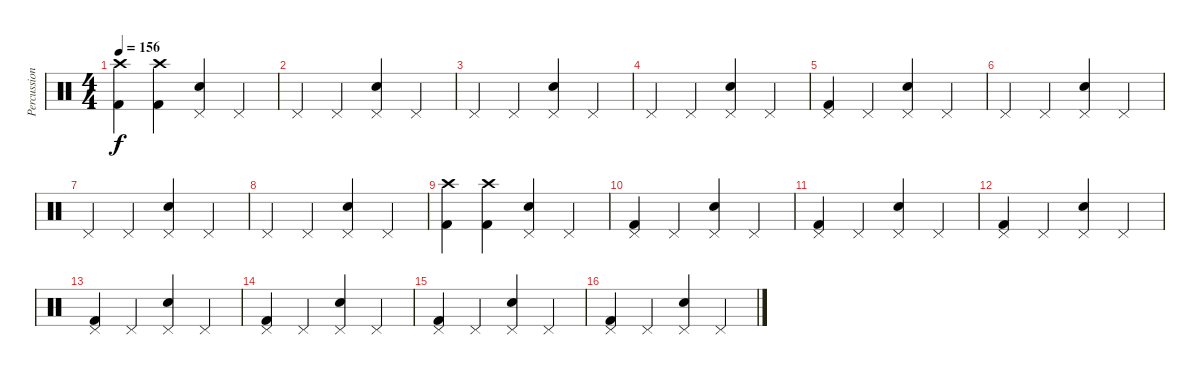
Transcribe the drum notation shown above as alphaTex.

\track ("Percussions" "Percussion") {instrument percussion}
\staff {score}
\articulation defaults
\ts (4 4)
\tempo 156
\clef neutral
\ks c
("Crash high (hit)" "Kick (hit) 2").4{dy f} ("Crash high (hit)" "Kick (hit) 2").4 ("Pedal Hi-Hat (hit)" "Electric Snare (hit)").4 "Pedal Hi-Hat (hit)".4 |
"Pedal Hi-Hat (hit)".4 "Pedal Hi-Hat (hit)".4 ("Pedal Hi-Hat (hit)" "Electric Snare (hit)").4 "Pedal Hi-Hat (hit)".4 |
"Pedal Hi-Hat (hit)".4 "Pedal Hi-Hat (hit)".4 ("Pedal Hi-Hat (hit)" "Electric Snare (hit)").4 "Pedal Hi-Hat (hit)".4 |
"Pedal Hi-Hat (hit)".4 "Pedal Hi-Hat (hit)".4 ("Pedal Hi-Hat (hit)" "Electric Snare (hit)").4 "Pedal Hi-Hat (hit)".4 |
("Pedal Hi-Hat (hit)" "Kick (hit) 2").4 "Pedal Hi-Hat (hit)".4 ("Pedal Hi-Hat (hit)" "Electric Snare (hit)").4 "Pedal Hi-Hat (hit)".4 |
"Pedal Hi-Hat (hit)".4 "Pedal Hi-Hat (hit)".4 ("Pedal Hi-Hat (hit)" "Electric Snare (hit)").4 "Pedal Hi-Hat (hit)".4 |
"Pedal Hi-Hat (hit)".4 "Pedal Hi-Hat (hit)".4 ("Pedal Hi-Hat (hit)" "Electric Snare (hit)").4 "Pedal Hi-Hat (hit)".4 |
"Pedal Hi-Hat (hit)".4 "Pedal Hi-Hat (hit)".4 ("Pedal Hi-Hat (hit)" "Electric Snare (hit)").4 "Pedal Hi-Hat (hit)".4 |
("Crash high (hit)" "Kick (hit) 2").4 ("Crash high (hit)" "Kick (hit) 2").4 ("Pedal Hi-Hat (hit)" "Electric Snare (hit)").4 "Pedal Hi-Hat (hit)".4 |
("Pedal Hi-Hat (hit)" "Kick (hit) 2").4 "Pedal Hi-Hat (hit)".4 ("Pedal Hi-Hat (hit)" "Electric Snare (hit)").4 "Pedal Hi-Hat (hit)".4 |
("Pedal Hi-Hat (hit)" "Kick (hit) 2").4 "Pedal Hi-Hat (hit)".4 ("Pedal Hi-Hat (hit)" "Electric Snare (hit)").4 "Pedal Hi-Hat (hit)".4 |
("Pedal Hi-Hat (hit)" "Kick (hit) 2").4 "Pedal Hi-Hat (hit)".4 ("Pedal Hi-Hat (hit)" "Electric Snare (hit)").4 "Pedal Hi-Hat (hit)".4 |
("Pedal Hi-Hat (hit)" "Kick (hit) 2").4 "Pedal Hi-Hat (hit)".4 ("Pedal Hi-Hat (hit)" "Electric Snare (hit)").4 "Pedal Hi-Hat (hit)".4 |
("Pedal Hi-Hat (hit)" "Kick (hit) 2").4 "Pedal Hi-Hat (hit)".4 ("Pedal Hi-Hat (hit)" "Electric Snare (hit)").4 "Pedal Hi-Hat (hit)".4 |
("Pedal Hi-Hat (hit)" "Kick (hit) 2").4 "Pedal Hi-Hat (hit)".4 ("Pedal Hi-Hat (hit)" "Electric Snare (hit)").4 "Pedal Hi-Hat (hit)".4 |
("Pedal Hi-Hat (hit)" "Kick (hit) 2").4 "Pedal Hi-Hat (hit)".4 ("Pedal Hi-Hat (hit)" "Electric Snare (hit)").4 "Pedal Hi-Hat (hit)".4
